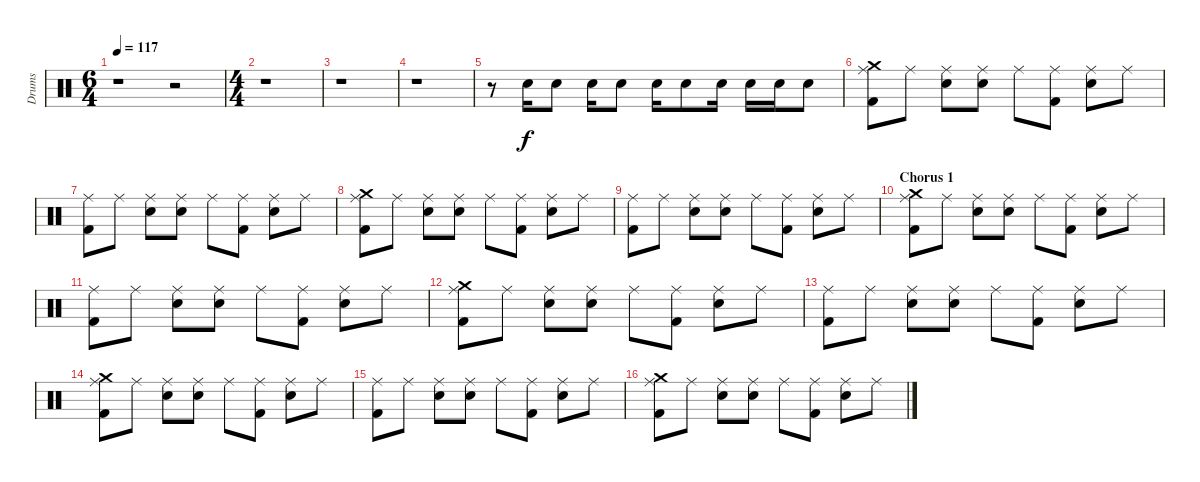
\track ("Drums" "Drums") {instrument percussion}
\staff {score}
\articulation defaults
\ts (6 4)
\tempo 117
\clef neutral
\ks c
r.1{dy f} r.2 |
\ts (4 4)
r.1 |
r.1 |
r.1 |
r.8 "Electric Snare (hit)".16 "Electric Snare (hit)".8 "Electric Snare (hit)".16 "Electric Snare (hit)".8 "Electric Snare (hit)".16 "Electric Snare (hit)".8 "Electric Snare (hit)".16 "Electric Snare (hit)".16 "Electric Snare (hit)".16 "Electric Snare (hit)".8 |
("Ride (middle)" "Crash medium (hit)" "Kick (hit) 2").8 "Ride (middle)".8 ("Ride (middle)" "Electric Snare (hit)").8 ("Ride (middle)" "Electric Snare (hit)").8 "Ride (middle)".8 ("Ride (middle)" "Kick (hit) 2").8 ("Ride (middle)" "Electric Snare (hit)").8 "Ride (middle)".8 |
("Ride (middle)" "Kick (hit) 2").8 "Ride (middle)".8 ("Ride (middle)" "Electric Snare (hit)").8 ("Ride (middle)" "Electric Snare (hit)").8 "Ride (middle)".8 ("Ride (middle)" "Kick (hit) 2").8 ("Ride (middle)" "Electric Snare (hit)").8 "Ride (middle)".8 |
("Ride (middle)" "Crash medium (hit)" "Kick (hit) 2").8 "Ride (middle)".8 ("Ride (middle)" "Electric Snare (hit)").8 ("Ride (middle)" "Electric Snare (hit)").8 "Ride (middle)".8 ("Ride (middle)" "Kick (hit) 2").8 ("Ride (middle)" "Electric Snare (hit)").8 "Ride (middle)".8 |
("Ride (middle)" "Kick (hit) 2").8 "Ride (middle)".8 ("Ride (middle)" "Electric Snare (hit)").8 ("Ride (middle)" "Electric Snare (hit)").8 "Ride (middle)".8 ("Ride (middle)" "Kick (hit) 2").8 ("Ride (middle)" "Electric Snare (hit)").8 "Ride (middle)".8 |
\section ("" "Chorus 1")
("Ride (middle)" "Crash medium (hit)" "Kick (hit) 2").8 "Ride (middle)".8 ("Ride (middle)" "Electric Snare (hit)").8 ("Ride (middle)" "Electric Snare (hit)").8 "Ride (middle)".8 ("Ride (middle)" "Kick (hit) 2").8 ("Ride (middle)" "Electric Snare (hit)").8 "Ride (middle)".8 |
("Ride (middle)" "Kick (hit) 2").8 "Ride (middle)".8 ("Ride (middle)" "Electric Snare (hit)").8 ("Ride (middle)" "Electric Snare (hit)").8 "Ride (middle)".8 ("Ride (middle)" "Kick (hit) 2").8 ("Ride (middle)" "Electric Snare (hit)").8 "Ride (middle)".8 |
("Ride (middle)" "Crash medium (hit)" "Kick (hit) 2").8 "Ride (middle)".8 ("Ride (middle)" "Electric Snare (hit)").8 ("Ride (middle)" "Electric Snare (hit)").8 "Ride (middle)".8 ("Ride (middle)" "Kick (hit) 2").8 ("Ride (middle)" "Electric Snare (hit)").8 "Ride (middle)".8 |
("Ride (middle)" "Kick (hit) 2").8 "Ride (middle)".8 ("Ride (middle)" "Electric Snare (hit)").8 ("Ride (middle)" "Electric Snare (hit)").8 "Ride (middle)".8 ("Ride (middle)" "Kick (hit) 2").8 ("Ride (middle)" "Electric Snare (hit)").8 "Ride (middle)".8 |
("Ride (middle)" "Crash medium (hit)" "Kick (hit) 2").8 "Ride (middle)".8 ("Ride (middle)" "Electric Snare (hit)").8 ("Ride (middle)" "Electric Snare (hit)").8 "Ride (middle)".8 ("Ride (middle)" "Kick (hit) 2").8 ("Ride (middle)" "Electric Snare (hit)").8 "Ride (middle)".8 |
("Ride (middle)" "Kick (hit) 2").8 "Ride (middle)".8 ("Ride (middle)" "Electric Snare (hit)").8 ("Ride (middle)" "Electric Snare (hit)").8 "Ride (middle)".8 ("Ride (middle)" "Kick (hit) 2").8 ("Ride (middle)" "Electric Snare (hit)").8 "Ride (middle)".8 |
("Ride (middle)" "Crash medium (hit)" "Kick (hit) 2").8 "Ride (middle)".8 ("Ride (middle)" "Electric Snare (hit)").8 ("Ride (middle)" "Electric Snare (hit)").8 "Ride (middle)".8 ("Ride (middle)" "Kick (hit) 2").8 ("Ride (middle)" "Electric Snare (hit)").8 "Ride (middle)".8
